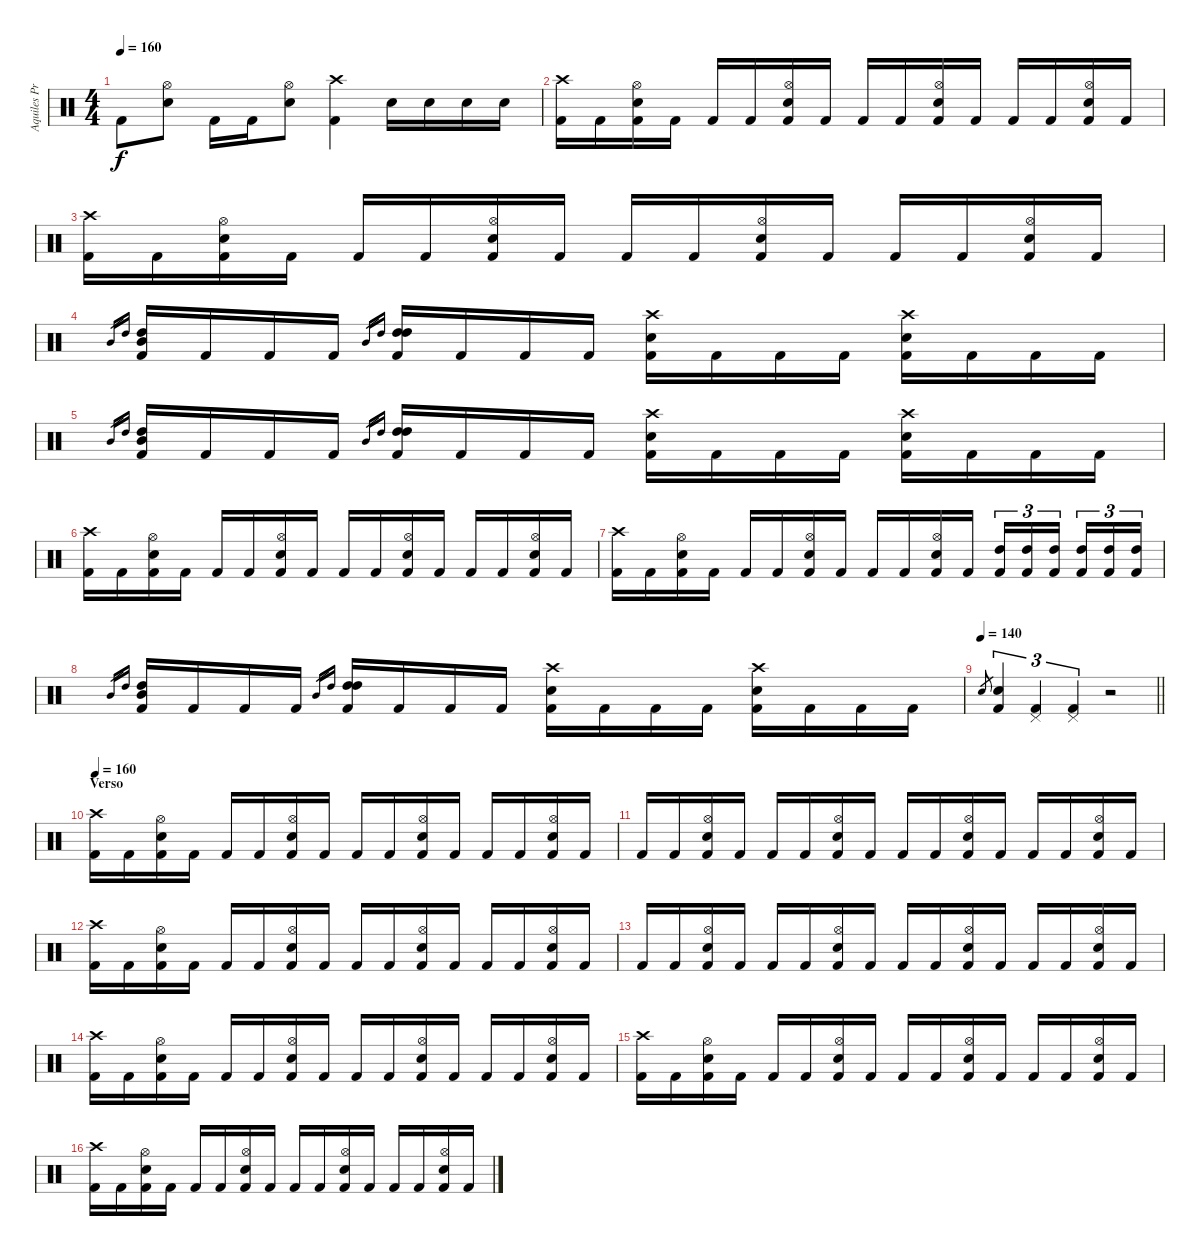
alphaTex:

\track ("Aquiles Priester" "Aquiles Pr") {instrument percussion}
\staff {score}
\articulation defaults
\ts (4 4)
\tempo 160
\clef neutral
\ks c "Kick (hit) 2".8{dy f}
("Hi-Hat (open)" "Electric Snare (hit)").8 "Kick (hit) 2".16 "Kick (hit) 2".16 ("Hi-Hat (open)" "Electric Snare (hit)").8 ("Crash high (hit)" "Kick (hit) 2").4 "Electric Snare (hit)".16 "Electric Snare (hit)".16 "Electric Snare (hit)".16 "Electric Snare (hit)".16 |
("Crash high (hit)" "Kick (hit) 2").16 "Kick (hit) 2".16 ("Hi-Hat (open)" "Electric Snare (hit)" "Kick (hit) 2").16 "Kick (hit) 2".16 "Kick (hit) 2".16 "Kick (hit) 2".16 ("Hi-Hat (open)" "Electric Snare (hit)" "Kick (hit) 2").16 "Kick (hit) 2".16 "Kick (hit) 2".16 "Kick (hit) 2".16 ("Hi-Hat (open)" "Electric Snare (hit)" "Kick (hit) 2").16 "Kick (hit) 2".16 "Kick (hit) 2".16 "Kick (hit) 2".16 ("Hi-Hat (open)" "Electric Snare (hit)" "Kick (hit) 2").16 "Kick (hit) 2".16 |
("Crash high (hit)" "Kick (hit) 2").16 "Kick (hit) 2".16 ("Hi-Hat (open)" "Electric Snare (hit)" "Kick (hit) 2").16 "Kick (hit) 2".16 "Kick (hit) 2".16 "Kick (hit) 2".16 ("Hi-Hat (open)" "Electric Snare (hit)" "Kick (hit) 2").16 "Kick (hit) 2".16 "Kick (hit) 2".16 "Kick (hit) 2".16 ("Hi-Hat (open)" "Electric Snare (hit)" "Kick (hit) 2").16 "Kick (hit) 2".16 "Kick (hit) 2".16 "Kick (hit) 2".16 ("Hi-Hat (open)" "Electric Snare (hit)" "Kick (hit) 2").16 "Kick (hit) 2".16 |
"Mid Tom (hit)".16{gr} "High Tom (hit)".16{gr} ("Mid Tom (hit)" "High Tom (hit)" "Kick (hit) 2").16 "Kick (hit) 2".16 "Kick (hit) 2".16 "Kick (hit) 2".16 "Mid Tom (hit)".16{gr} "High Tom (hit)".16{gr} ("High Tom (hit)" "High Tom (hit)" "Kick (hit) 2").16 "Kick (hit) 2".16 "Kick (hit) 2".16 "Kick (hit) 2".16 ("Crash high (hit)" "Electric Snare (hit)" "Kick (hit) 2").16 "Kick (hit) 2".16 "Kick (hit) 2".16 "Kick (hit) 2".16 ("Crash high (hit)" "Electric Snare (hit)" "Kick (hit) 2").16 "Kick (hit) 2".16 "Kick (hit) 2".16 "Kick (hit) 2".16 |
"Mid Tom (hit)".16{gr} "High Tom (hit)".16{gr} ("Mid Tom (hit)" "High Tom (hit)" "Kick (hit) 2").16 "Kick (hit) 2".16 "Kick (hit) 2".16 "Kick (hit) 2".16 "Mid Tom (hit)".16{gr} "High Tom (hit)".16{gr} ("High Tom (hit)" "High Tom (hit)" "Kick (hit) 2").16 "Kick (hit) 2".16 "Kick (hit) 2".16 "Kick (hit) 2".16 ("Crash high (hit)" "Electric Snare (hit)" "Kick (hit) 2").16 "Kick (hit) 2".16 "Kick (hit) 2".16 "Kick (hit) 2".16 ("Crash high (hit)" "Electric Snare (hit)" "Kick (hit) 2").16 "Kick (hit) 2".16 "Kick (hit) 2".16 "Kick (hit) 2".16 |
("Crash high (hit)" "Kick (hit) 2").16 "Kick (hit) 2".16 ("Hi-Hat (open)" "Electric Snare (hit)" "Kick (hit) 2").16 "Kick (hit) 2".16 "Kick (hit) 2".16 "Kick (hit) 2".16 ("Hi-Hat (open)" "Electric Snare (hit)" "Kick (hit) 2").16 "Kick (hit) 2".16 "Kick (hit) 2".16 "Kick (hit) 2".16 ("Hi-Hat (open)" "Electric Snare (hit)" "Kick (hit) 2").16 "Kick (hit) 2".16 "Kick (hit) 2".16 "Kick (hit) 2".16 ("Hi-Hat (open)" "Electric Snare (hit)" "Kick (hit) 2").16 "Kick (hit) 2".16 |
("Crash high (hit)" "Kick (hit) 2").16 "Kick (hit) 2".16 ("Hi-Hat (open)" "Electric Snare (hit)" "Kick (hit) 2").16 "Kick (hit) 2".16 "Kick (hit) 2".16 "Kick (hit) 2".16 ("Hi-Hat (open)" "Electric Snare (hit)" "Kick (hit) 2").16 "Kick (hit) 2".16 "Kick (hit) 2".16 "Kick (hit) 2".16 ("Hi-Hat (open)" "Electric Snare (hit)" "Kick (hit) 2").16 "Kick (hit) 2".16 ("High Tom (hit)" "Kick (hit) 2").16{tu (3 2)} ("High Tom (hit)" "Kick (hit) 2").16{tu (3 2)} ("High Tom (hit)" "Kick (hit) 2").16{tu (3 2)} ("High Tom (hit)" "Kick (hit) 2").16{tu (3 2)} ("High Tom (hit)" "Kick (hit) 2").16{tu (3 2)} ("High Tom (hit)" "Kick (hit) 2").16{tu (3 2)} |
"Mid Tom (hit)".16{gr} "High Tom (hit)".16{gr} ("Mid Tom (hit)" "High Tom (hit)" "Kick (hit) 2").16 "Kick (hit) 2".16 "Kick (hit) 2".16 "Kick (hit) 2".16 "Mid Tom (hit)".16{gr} "High Tom (hit)".16{gr} ("High Tom (hit)" "High Tom (hit)" "Kick (hit) 2").16 "Kick (hit) 2".16 "Kick (hit) 2".16 "Kick (hit) 2".16 ("Crash high (hit)" "Electric Snare (hit)" "Kick (hit) 2").16 "Kick (hit) 2".16 "Kick (hit) 2".16 "Kick (hit) 2".16 ("Crash high (hit)" "Electric Snare (hit)" "Kick (hit) 2").16 "Kick (hit) 2".16 "Kick (hit) 2".16 "Kick (hit) 2".16 |
\tempo 140
\barLineRight lightlight "Electric Snare (hit)".8{gr}
("Electric Snare (hit)" "Kick (hit) 2").4{tu (3 2)} ("Pedal Hi-Hat (hit)" "Kick (hit) 2").4{tu (3 2)} ("Pedal Hi-Hat (hit)" "Kick (hit) 2").4{tu (3 2)} r.2 |
\section ("" "Verso")
\tempo 160
("Crash high (hit)" "Kick (hit) 2").16 "Kick (hit) 2".16 ("Hi-Hat (open)" "Electric Snare (hit)" "Kick (hit) 2").16 "Kick (hit) 2".16 "Kick (hit) 2".16 "Kick (hit) 2".16 ("Hi-Hat (open)" "Electric Snare (hit)" "Kick (hit) 2").16 "Kick (hit) 2".16 "Kick (hit) 2".16 "Kick (hit) 2".16 ("Hi-Hat (open)" "Electric Snare (hit)" "Kick (hit) 2").16 "Kick (hit) 2".16 "Kick (hit) 2".16 "Kick (hit) 2".16 ("Hi-Hat (open)" "Electric Snare (hit)" "Kick (hit) 2").16 "Kick (hit) 2".16 |
"Kick (hit) 2".16 "Kick (hit) 2".16 ("Hi-Hat (open)" "Electric Snare (hit)" "Kick (hit) 2").16 "Kick (hit) 2".16 "Kick (hit) 2".16 "Kick (hit) 2".16 ("Hi-Hat (open)" "Electric Snare (hit)" "Kick (hit) 2").16 "Kick (hit) 2".16 "Kick (hit) 2".16 "Kick (hit) 2".16 ("Hi-Hat (open)" "Electric Snare (hit)" "Kick (hit) 2").16 "Kick (hit) 2".16 "Kick (hit) 2".16 "Kick (hit) 2".16 ("Hi-Hat (open)" "Electric Snare (hit)" "Kick (hit) 2").16 "Kick (hit) 2".16 |
("Crash high (hit)" "Kick (hit) 2").16 "Kick (hit) 2".16 ("Hi-Hat (open)" "Electric Snare (hit)" "Kick (hit) 2").16 "Kick (hit) 2".16 "Kick (hit) 2".16 "Kick (hit) 2".16 ("Hi-Hat (open)" "Electric Snare (hit)" "Kick (hit) 2").16 "Kick (hit) 2".16 "Kick (hit) 2".16 "Kick (hit) 2".16 ("Hi-Hat (open)" "Electric Snare (hit)" "Kick (hit) 2").16 "Kick (hit) 2".16 "Kick (hit) 2".16 "Kick (hit) 2".16 ("Hi-Hat (open)" "Electric Snare (hit)" "Kick (hit) 2").16 "Kick (hit) 2".16 |
"Kick (hit) 2".16 "Kick (hit) 2".16 ("Hi-Hat (open)" "Electric Snare (hit)" "Kick (hit) 2").16 "Kick (hit) 2".16 "Kick (hit) 2".16 "Kick (hit) 2".16 ("Hi-Hat (open)" "Electric Snare (hit)" "Kick (hit) 2").16 "Kick (hit) 2".16 "Kick (hit) 2".16 "Kick (hit) 2".16 ("Hi-Hat (open)" "Electric Snare (hit)" "Kick (hit) 2").16 "Kick (hit) 2".16 "Kick (hit) 2".16 "Kick (hit) 2".16 ("Hi-Hat (open)" "Electric Snare (hit)" "Kick (hit) 2").16 "Kick (hit) 2".16 |
("Crash high (hit)" "Kick (hit) 2").16 "Kick (hit) 2".16 ("Hi-Hat (open)" "Electric Snare (hit)" "Kick (hit) 2").16 "Kick (hit) 2".16 "Kick (hit) 2".16 "Kick (hit) 2".16 ("Hi-Hat (open)" "Electric Snare (hit)" "Kick (hit) 2").16 "Kick (hit) 2".16 "Kick (hit) 2".16 "Kick (hit) 2".16 ("Hi-Hat (open)" "Electric Snare (hit)" "Kick (hit) 2").16 "Kick (hit) 2".16 "Kick (hit) 2".16 "Kick (hit) 2".16 ("Hi-Hat (open)" "Electric Snare (hit)" "Kick (hit) 2").16 "Kick (hit) 2".16 |
("Crash high (hit)" "Kick (hit) 2").16 "Kick (hit) 2".16 ("Hi-Hat (open)" "Electric Snare (hit)" "Kick (hit) 2").16 "Kick (hit) 2".16 "Kick (hit) 2".16 "Kick (hit) 2".16 ("Hi-Hat (open)" "Electric Snare (hit)" "Kick (hit) 2").16 "Kick (hit) 2".16 "Kick (hit) 2".16 "Kick (hit) 2".16 ("Hi-Hat (open)" "Electric Snare (hit)" "Kick (hit) 2").16 "Kick (hit) 2".16 "Kick (hit) 2".16 "Kick (hit) 2".16 ("Hi-Hat (open)" "Electric Snare (hit)" "Kick (hit) 2").16 "Kick (hit) 2".16 |
("Crash high (hit)" "Kick (hit) 2").16 "Kick (hit) 2".16 ("Hi-Hat (open)" "Electric Snare (hit)" "Kick (hit) 2").16 "Kick (hit) 2".16 "Kick (hit) 2".16 "Kick (hit) 2".16 ("Hi-Hat (open)" "Electric Snare (hit)" "Kick (hit) 2").16 "Kick (hit) 2".16 "Kick (hit) 2".16 "Kick (hit) 2".16 ("Hi-Hat (open)" "Electric Snare (hit)" "Kick (hit) 2").16 "Kick (hit) 2".16 "Kick (hit) 2".16 "Kick (hit) 2".16 ("Hi-Hat (open)" "Electric Snare (hit)" "Kick (hit) 2").16 "Kick (hit) 2".16
